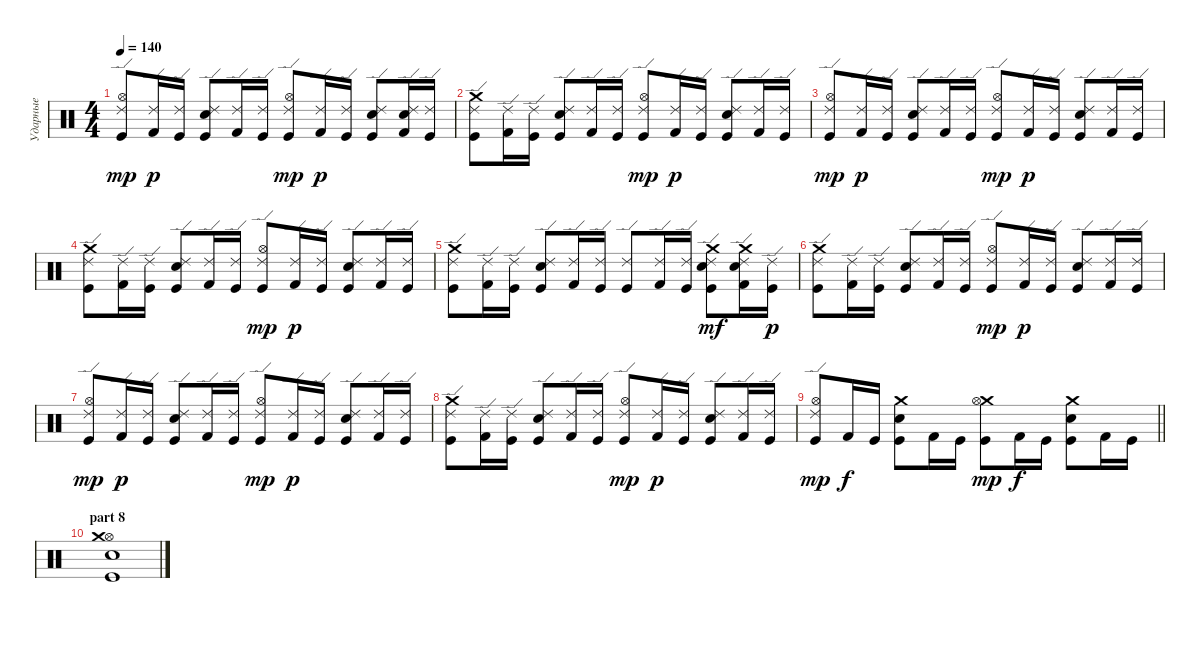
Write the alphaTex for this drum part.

\track ("Ударные" "Ударные") {instrument percussion}
\staff {score}
\articulation defaults
\ts (4 4)
\tempo 140
\clef neutral
\ks c
("Ride (edge) 2" "Hi-Hat (open)" "Kick (hit)").8{dy mp} ("Ride (edge) 2" "Kick (hit) 2").16{dy p} ("Ride (edge) 2" "Kick (hit)").16 ("Ride (edge) 2" "Electric Snare (hit)" "Kick (hit)").8 ("Ride (edge) 2" "Kick (hit) 2").16 ("Ride (edge) 2" "Kick (hit)").16 ("Ride (edge) 2" "Hi-Hat (open)" "Kick (hit)").8{dy mp} ("Ride (edge) 2" "Kick (hit) 2").16{dy p} ("Ride (edge) 2" "Kick (hit)").16 ("Ride (edge) 2" "Electric Snare (hit)" "Kick (hit)").8 ("Ride (edge) 2" "Electric Snare (hit)" "Kick (hit) 2").16 ("Ride (edge) 2" "Kick (hit)").16 |
("Ride (edge) 2" "Crash medium (hit)" "Kick (hit)").8 ("Ride (edge) 2" "Kick (hit) 2").16 ("Ride (edge) 2" "Kick (hit)").16 ("Ride (edge) 2" "Electric Snare (hit)" "Kick (hit)").8 ("Ride (edge) 2" "Kick (hit) 2").16 ("Ride (edge) 2" "Kick (hit)").16 ("Ride (edge) 2" "Hi-Hat (open)" "Kick (hit)").8{dy mp} ("Ride (edge) 2" "Kick (hit) 2").16{dy p} ("Ride (edge) 2" "Kick (hit)").16 ("Ride (edge) 2" "Electric Snare (hit)" "Kick (hit)").8 ("Ride (edge) 2" "Kick (hit) 2").16 ("Ride (edge) 2" "Kick (hit)").16 |
("Ride (edge) 2" "Hi-Hat (open)" "Kick (hit)").8{dy mp} ("Ride (edge) 2" "Kick (hit) 2").16{dy p} ("Ride (edge) 2" "Kick (hit)").16 ("Ride (edge) 2" "Electric Snare (hit)" "Kick (hit)").8 ("Ride (edge) 2" "Kick (hit) 2").16 ("Ride (edge) 2" "Kick (hit)").16 ("Ride (edge) 2" "Hi-Hat (open)" "Kick (hit)").8{dy mp} ("Ride (edge) 2" "Kick (hit) 2").16{dy p} ("Ride (edge) 2" "Kick (hit)").16 ("Ride (edge) 2" "Electric Snare (hit)" "Kick (hit)").8 ("Ride (edge) 2" "Kick (hit) 2").16 ("Ride (edge) 2" "Kick (hit)").16 |
("Ride (edge) 2" "Crash medium (hit)" "Kick (hit)").8 ("Ride (edge) 2" "Kick (hit) 2").16 ("Ride (edge) 2" "Kick (hit)").16 ("Ride (edge) 2" "Electric Snare (hit)" "Kick (hit)").8 ("Ride (edge) 2" "Kick (hit) 2").16 ("Ride (edge) 2" "Kick (hit)").16 ("Ride (edge) 2" "Hi-Hat (open)" "Kick (hit)").8{dy mp} ("Ride (edge) 2" "Kick (hit) 2").16{dy p} ("Ride (edge) 2" "Kick (hit)").16 ("Ride (edge) 2" "Electric Snare (hit)" "Kick (hit)").8 ("Ride (edge) 2" "Kick (hit) 2").16 ("Ride (edge) 2" "Kick (hit)").16 |
("Ride (edge) 2" "Crash medium (hit)" "Kick (hit)").8 ("Ride (edge) 2" "Kick (hit) 2").16 ("Ride (edge) 2" "Kick (hit)").16 ("Ride (edge) 2" "Electric Snare (hit)" "Kick (hit)").8 ("Ride (edge) 2" "Kick (hit) 2").16 ("Ride (edge) 2" "Kick (hit)").16 ("Ride (edge) 2" "Kick (hit)").8 ("Ride (edge) 2" "Kick (hit) 2").16 ("Ride (edge) 2" "Kick (hit)").16 ("Ride (edge) 2" "Crash medium (hit)" "Electric Snare (hit)" "Kick (hit)").8{dy mf} ("Ride (edge) 2" "Crash medium (hit)" "Electric Snare (hit)" "Kick (hit) 2").16 ("Ride (edge) 2" "Kick (hit)").16{dy p} |
("Ride (edge) 2" "Crash medium (hit)" "Kick (hit)").8 ("Ride (edge) 2" "Kick (hit) 2").16 ("Ride (edge) 2" "Kick (hit)").16 ("Ride (edge) 2" "Electric Snare (hit)" "Kick (hit)").8 ("Ride (edge) 2" "Kick (hit) 2").16 ("Ride (edge) 2" "Kick (hit)").16 ("Ride (edge) 2" "Hi-Hat (open)" "Kick (hit)").8{dy mp} ("Ride (edge) 2" "Kick (hit) 2").16{dy p} ("Ride (edge) 2" "Kick (hit)").16 ("Ride (edge) 2" "Electric Snare (hit)" "Kick (hit)").8 ("Ride (edge) 2" "Kick (hit) 2").16 ("Ride (edge) 2" "Kick (hit)").16 |
("Ride (edge) 2" "Hi-Hat (open)" "Kick (hit)").8{dy mp} ("Ride (edge) 2" "Kick (hit) 2").16{dy p} ("Ride (edge) 2" "Kick (hit)").16 ("Ride (edge) 2" "Electric Snare (hit)" "Kick (hit)").8 ("Ride (edge) 2" "Kick (hit) 2").16 ("Ride (edge) 2" "Kick (hit)").16 ("Ride (edge) 2" "Hi-Hat (open)" "Kick (hit)").8{dy mp} ("Ride (edge) 2" "Kick (hit) 2").16{dy p} ("Ride (edge) 2" "Kick (hit)").16 ("Ride (edge) 2" "Electric Snare (hit)" "Kick (hit)").8 ("Ride (edge) 2" "Kick (hit) 2").16 ("Ride (edge) 2" "Kick (hit)").16 |
("Ride (edge) 2" "Crash medium (hit)" "Kick (hit)").8 ("Ride (edge) 2" "Kick (hit) 2").16 ("Ride (edge) 2" "Kick (hit)").16 ("Ride (edge) 2" "Electric Snare (hit)" "Kick (hit)").8 ("Ride (edge) 2" "Kick (hit) 2").16 ("Ride (edge) 2" "Kick (hit)").16 ("Ride (edge) 2" "Hi-Hat (open)" "Kick (hit)").8{dy mp} ("Ride (edge) 2" "Kick (hit) 2").16{dy p} ("Ride (edge) 2" "Kick (hit)").16 ("Ride (edge) 2" "Electric Snare (hit)" "Kick (hit)").8 ("Ride (edge) 2" "Kick (hit) 2").16 ("Ride (edge) 2" "Kick (hit)").16 |
\barLineRight lightlight
("Ride (edge) 2" "Hi-Hat (open)" "Kick (hit)").8{dy mp} "Kick (hit) 2".16{dy f} "Kick (hit)".16 ("Crash medium (hit)" "Electric Snare (hit)" "Kick (hit)").8 "Kick (hit) 2".16 "Kick (hit)".16 ("Crash medium (hit)" "Hi-Hat (open)" "Kick (hit)").8{dy mp} "Kick (hit) 2".16{dy f} "Kick (hit)".16 ("Crash medium (hit)" "Electric Snare (hit)" "Kick (hit)").8 "Kick (hit) 2".16 "Kick (hit)".16 |
\section ("" "part 8")
("Hi-Hat (open)" "Crash medium (hit)" "Electric Snare (hit)" "Kick (hit)").1
